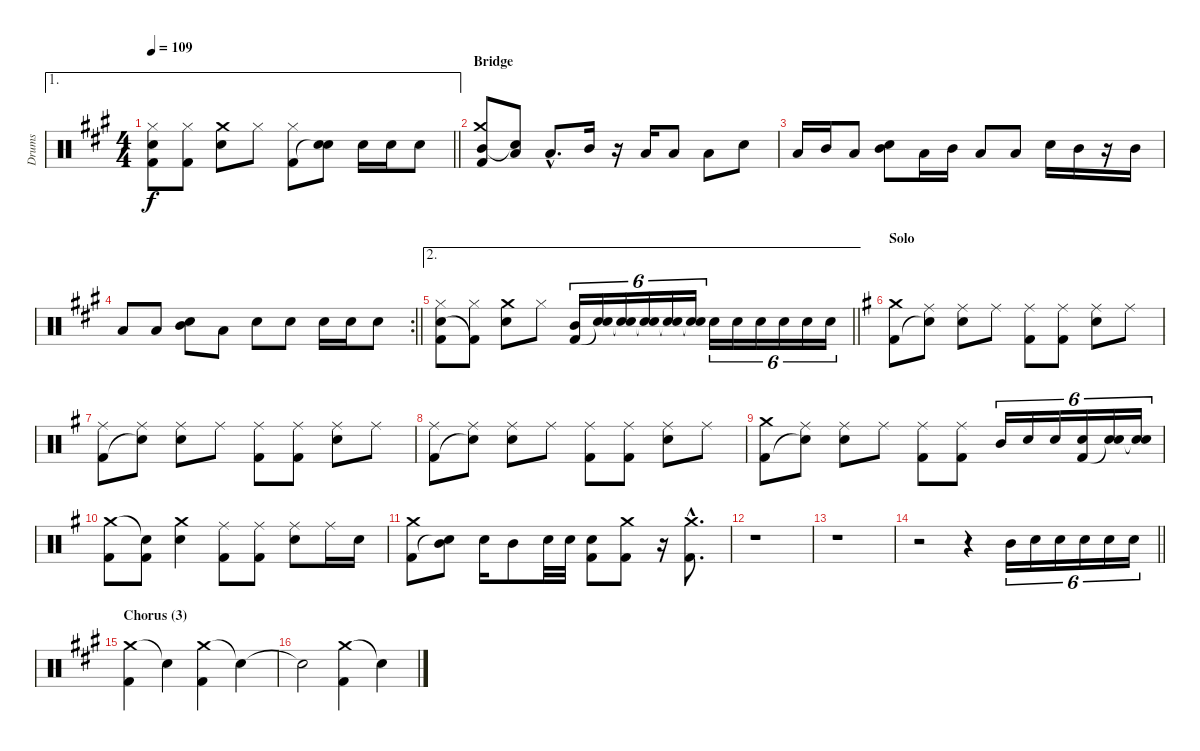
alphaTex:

\track ("Drums" "Drums") {instrument percussion}
\staff {score}
\articulation defaults
\ae 1
\ts (4 4)
\tempo 109
\clef neutral
\barLineRight lightlight
\ks f#minor
("Hi-Hat (closed)" "Electric Snare (hit)" "Kick (hit) 2").8{dy f} ("Hi-Hat (closed)" "Kick (hit) 2").8 ("Crash medium (hit)" "Electric Snare (hit)").8 "Hi-Hat (closed)".8 ("Hi-Hat (closed)" "Kick (hit) 2").8 ("Electric Snare (hit)" "Snare (hit)"{t}).8 "Electric Snare (hit)".16 "Electric Snare (hit)".16 "Electric Snare (hit)".8 |
\section ("" "Bridge")
("Crash medium (hit)" "Mid Tom (hit)" "Kick (hit) 2").8 ("Low Floor Tom (hit)" "Snare (hit)"{t}).8 "Low Floor Tom (hit)"{hac}.8{d} "Mid Tom (hit)".16 r.16 "Low Tom (hit)".16 "Low Floor Tom (hit)".8 "Low Floor Tom (hit)".8 "Electric Snare (hit)".8 |
"Low Floor Tom (hit)".16 "Mid Tom (hit)".16 "Low Floor Tom (hit)".8 ("Electric Snare (hit)" "Mid Tom (hit)").8 "Low Floor Tom (hit)".16 "Mid Tom (hit)".16 "Low Floor Tom (hit)".8 "Low Floor Tom (hit)".8 "Electric Snare (hit)".16 "Mid Tom (hit)".16 r.16 "Mid Tom (hit)".16 |
\rc 2
\barLineRight lightlight "Low Floor Tom (hit)".8 "Low Floor Tom (hit)".8
("Electric Snare (hit)" "Mid Tom (hit)").8 "Low Floor Tom (hit)".8 "Electric Snare (hit)".8 "Electric Snare (hit)".8 "Electric Snare (hit)".16 "Electric Snare (hit)".16 "Electric Snare (hit)".8 |
\ae 2
\barLineRight lightlight
("Hi-Hat (closed)" "Electric Snare (hit)" "Kick (hit) 2").8 ("Hi-Hat (closed)" "Kick (hit) 2"{t}).8 ("Crash medium (hit)" "Electric Snare (hit)").8 "Hi-Hat (closed)".8 ("Mid Tom (hit)" "Kick (hit) 2").16{tu (6 4)} ("Electric Snare (hit)" "Snare (hit)"{t}).16{tu (6 4)} ("Electric Snare (hit)" "Snare (hit)"{t}).16{tu (6 4)} ("Electric Snare (hit)" "Snare (hit)"{t}).16{tu (6 4)} ("Electric Snare (hit)" "Snare (hit)"{t}).16{tu (6 4)} ("Electric Snare (hit)" "Snare (hit)"{t}).16{tu (6 4)} "Electric Snare (hit)".16{tu (6 4)} "Electric Snare (hit)".16{tu (6 4)} "Electric Snare (hit)".16{tu (6 4)} "Electric Snare (hit)".16{tu (6 4)} "Electric Snare (hit)".16{tu (6 4)} "Electric Snare (hit)".16{tu (6 4)} |
\section ("" "Solo")
\ks eminor
("Crash medium (hit)" "Kick (hit) 2").8 ("Ride (middle)" "Snare (hit)"{t}).8 ("Ride (middle)" "Electric Snare (hit)").8 "Ride (middle)".8 ("Ride (middle)" "Kick (hit) 2").8 ("Ride (middle)" "Kick (hit) 2").8 ("Ride (middle)" "Electric Snare (hit)").8 "Ride (middle)".8 |
("Ride (middle)" "Kick (hit) 2").8 ("Ride (middle)" "Snare (hit)"{t}).8 ("Ride (middle)" "Electric Snare (hit)").8 "Ride (middle)".8 ("Ride (middle)" "Kick (hit) 2").8 ("Ride (middle)" "Kick (hit) 2").8 ("Ride (middle)" "Electric Snare (hit)").8 "Ride (middle)".8 |
("Ride (middle)" "Kick (hit) 2").8 ("Ride (middle)" "Snare (hit)"{t}).8 ("Ride (middle)" "Electric Snare (hit)").8 "Ride (middle)".8 ("Ride (middle)" "Kick (hit) 2").8 ("Ride (middle)" "Kick (hit) 2").8 ("Ride (middle)" "Electric Snare (hit)").8 "Ride (middle)".8 |
("Crash medium (hit)" "Kick (hit) 2").8 ("Ride (middle)" "Snare (hit)"{t}).8 ("Ride (middle)" "Electric Snare (hit)").8 "Ride (middle)".8 ("Ride (middle)" "Kick (hit) 2").8 ("Ride (middle)" "Kick (hit) 2").8 "Mid Tom (hit)".16{tu (6 4)} "Electric Snare (hit)".16{tu (6 4)} "Electric Snare (hit)".16{tu (6 4)} ("Electric Snare (hit)" "Kick (hit) 2").16{tu (6 4)} ("Electric Snare (hit)" "Snare (hit)"{t}).16{tu (6 4)} ("Electric Snare (hit)" "Snare (hit)"{t}).16{tu (6 4)} |
("Crash medium (hit)" "Kick (hit) 2").8 ("Snare (hit)"{t} "Kick (hit) 2").8 ("Crash medium (hit)" "Electric Snare (hit)").4 ("Ride (middle)" "Kick (hit) 2").8 ("Ride (middle)" "Kick (hit) 2").8 ("Ride (middle)" "Electric Snare (hit)").8 "Ride (middle)".16 "Electric Snare (hit)".16 |
("Crash medium (hit)" "Kick (hit) 2").8 ("Mid Tom (hit)" "Snare (hit)"{t}).8 "Electric Snare (hit)".16 "Mid Tom (hit)".8 "Electric Snare (hit)".32 "Electric Snare (hit)".32 ("Electric Snare (hit)" "Kick (hit) 2").8 ("Crash medium (hit)" "Kick (hit) 2").8 r.16 ("Crash medium (hit)"{hac} "Kick (hit) 2"{hac}).8{d} |
r.1 |
r.1 |
\barLineRight lightlight
r.2 r.4 "Mid Tom (hit)".16{tu (6 4)} "Electric Snare (hit)".16{tu (6 4)} "Electric Snare (hit)".16{tu (6 4)} "Electric Snare (hit)".16{tu (6 4)} "Electric Snare (hit)".16{tu (6 4)} "Electric Snare (hit)".16{tu (6 4)} |
\section ("" "Chorus (3)")
\ks f#minor
("Crash medium (hit)" "Kick (hit) 2").4 "Snare (hit)"{t}.4 ("Crash medium (hit)" "Kick (hit) 2").4 "Snare (hit)"{t}.4 |
"Snare (hit)"{t}.2 ("Crash medium (hit)" "Kick (hit) 2").4 "Snare (hit)"{t}.4
